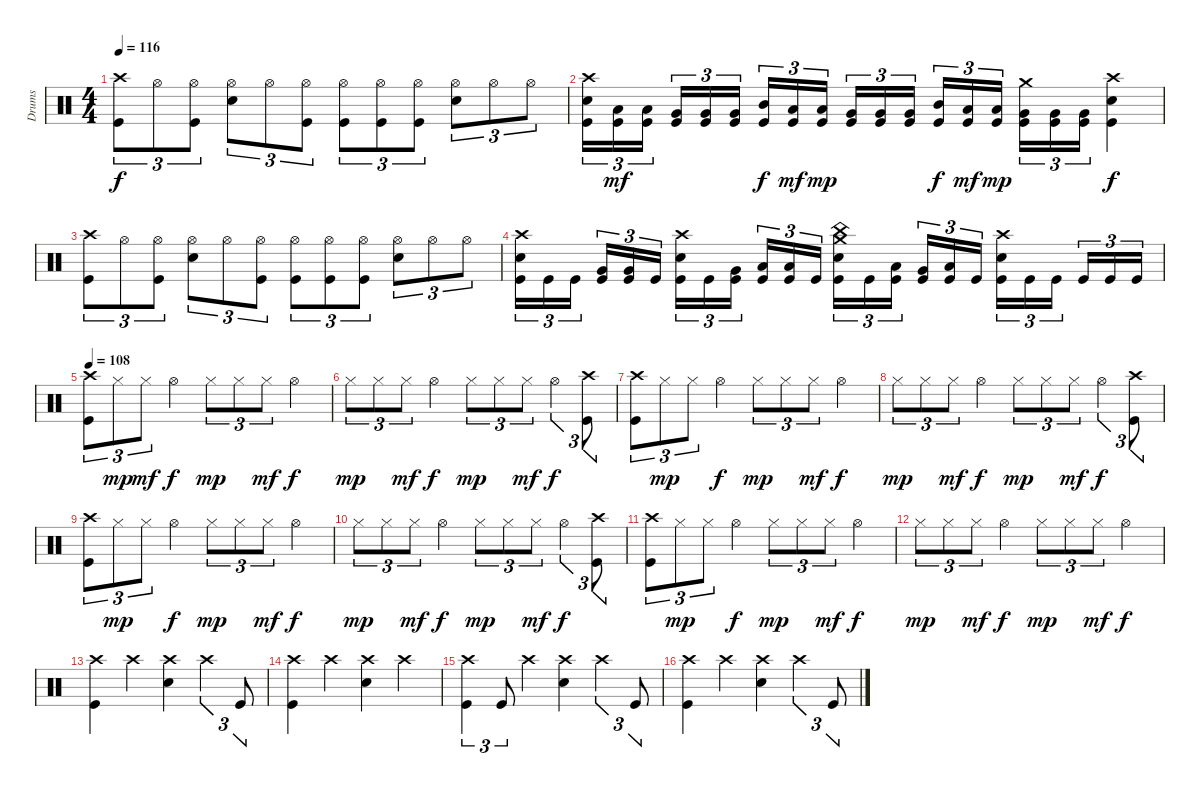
\track ("Drums" "Drums") {instrument percussion}
\staff {score}
\articulation defaults
\ts (4 4)
\tempo 116
\clef neutral
\ks c
("Crash high (hit)" "Kick (hit)").8{tu (3 2) dy f} "Hi-Hat (open)".8{tu (3 2)} ("Hi-Hat (open)" "Kick (hit)").8{tu (3 2)} ("Hi-Hat (open)" "Electric Snare (hit)").8{tu (3 2)} "Hi-Hat (open)".8{tu (3 2)} ("Hi-Hat (open)" "Kick (hit)").8{tu (3 2)} ("Hi-Hat (open)" "Kick (hit)").8{tu (3 2)} ("Hi-Hat (open)" "Kick (hit)").8{tu (3 2)} ("Hi-Hat (open)" "Kick (hit)").8{tu (3 2)} ("Hi-Hat (open)" "Electric Snare (hit)").8{tu (3 2)} "Hi-Hat (open)".8{tu (3 2)} "Hi-Hat (open)".8{tu (3 2)} |
("Crash high (hit)" "Electric Snare (hit)" "Kick (hit)").16{tu (3 2)} ("Low Tom (hit)" "Kick (hit)").16{tu (3 2) dy mf} ("Low Tom (hit)" "Kick (hit)").16{tu (3 2)} ("Very Low Tom (hit)" "Kick (hit)").16{tu (3 2)} ("Very Low Tom (hit)" "Kick (hit)").16{tu (3 2)} ("Very Low Tom (hit)" "Kick (hit)").16{tu (3 2)} ("Mid Tom (hit)" "Kick (hit)").16{tu (3 2) dy f} ("Low Tom (hit)" "Kick (hit)").16{tu (3 2) dy mf} ("Low Tom (hit)" "Kick (hit)").16{tu (3 2) dy mp} ("Very Low Tom (hit)" "Kick (hit)").16{tu (3 2)} ("Very Low Tom (hit)" "Kick (hit)").16{tu (3 2)} ("Very Low Tom (hit)" "Kick (hit)").16{tu (3 2)} ("Mid Tom (hit)" "Kick (hit)").16{tu (3 2) dy f} ("Low Tom (hit)" "Kick (hit)").16{tu (3 2) dy mf} ("Low Tom (hit)" "Kick (hit)").16{tu (3 2) dy mp} ("Crash medium (hit)" "Very Low Tom (hit)" "Kick (hit)").16{tu (3 2)} ("Very Low Tom (hit)" "Kick (hit)").16{tu (3 2)} ("Very Low Tom (hit)" "Kick (hit)").16{tu (3 2)} ("Crash high (hit)" "Electric Snare (hit)" "Kick (hit)").4{dy f} |
("Crash high (hit)" "Kick (hit)").8{tu (3 2)} "Hi-Hat (open)".8{tu (3 2)} ("Hi-Hat (open)" "Kick (hit)").8{tu (3 2)} ("Hi-Hat (open)" "Electric Snare (hit)").8{tu (3 2)} "Hi-Hat (open)".8{tu (3 2)} ("Hi-Hat (open)" "Kick (hit)").8{tu (3 2)} ("Hi-Hat (open)" "Kick (hit)").8{tu (3 2)} ("Hi-Hat (open)" "Kick (hit)").8{tu (3 2)} ("Hi-Hat (open)" "Kick (hit)").8{tu (3 2)} ("Hi-Hat (open)" "Electric Snare (hit)").8{tu (3 2)} "Hi-Hat (open)".8{tu (3 2)} "Hi-Hat (open)".8{tu (3 2)} |
("Crash high (hit)" "Electric Snare (hit)" "Kick (hit)").16{tu (3 2)} "Kick (hit)".16{tu (3 2)} "Kick (hit)".16{tu (3 2)} ("Very Low Tom (hit)" "Kick (hit)").16{tu (3 2)} ("Very Low Tom (hit)" "Kick (hit)").16{tu (3 2)} "Kick (hit)".16{tu (3 2)} ("Crash high (hit)" "Electric Snare (hit)" "Kick (hit)").16{tu (3 2)} "Kick (hit)".16{tu (3 2)} ("Very Low Tom (hit)" "Kick (hit)").16{tu (3 2)} ("Low Tom (hit)" "Kick (hit)").16{tu (3 2)} ("Low Tom (hit)" "Kick (hit)").16{tu (3 2)} "Kick (hit)".16{tu (3 2)} ("Crash medium (hit)" "China (hit)" "Electric Snare (hit)" "Kick (hit)").16{tu (3 2)} "Kick (hit)".16{tu (3 2)} ("Low Tom (hit)" "Kick (hit)").16{tu (3 2)} ("Very Low Tom (hit)" "Kick (hit)").16{tu (3 2)} ("Low Tom (hit)" "Kick (hit)").16{tu (3 2)} "Kick (hit)".16{tu (3 2)} ("Crash high (hit)" "Electric Snare (hit)" "Kick (hit)").16{tu (3 2)} "Kick (hit)".16{tu (3 2)} "Kick (hit)".16{tu (3 2)} "Kick (hit)".16{tu (3 2)} "Kick (hit)".16{tu (3 2)} "Kick (hit)".16{tu (3 2)} |
\tempo 108
("Crash high (hit)" "Kick (hit)").8{tu (3 2)} "Hi-Hat (closed)".8{tu (3 2) dy mp} "Hi-Hat (closed)".8{tu (3 2) dy mf} "Hi-Hat (open)".4{dy f} "Hi-Hat (closed)".8{tu (3 2) dy mp} "Hi-Hat (closed)".8{tu (3 2)} "Hi-Hat (closed)".8{tu (3 2) dy mf} "Hi-Hat (open)".4{dy f} |
"Hi-Hat (closed)".8{tu (3 2) dy mp} "Hi-Hat (closed)".8{tu (3 2)} "Hi-Hat (closed)".8{tu (3 2) dy mf} "Hi-Hat (open)".4{dy f} "Hi-Hat (closed)".8{tu (3 2) dy mp} "Hi-Hat (closed)".8{tu (3 2)} "Hi-Hat (closed)".8{tu (3 2) dy mf} "Hi-Hat (open)".4{tu (3 2) dy f} ("Crash high (hit)" "Kick (hit)").8{tu (3 2)} |
("Crash high (hit)" "Kick (hit)").8{tu (3 2)} "Hi-Hat (closed)".8{tu (3 2) dy mp} "Hi-Hat (closed)".8{tu (3 2)} "Hi-Hat (open)".4{dy f} "Hi-Hat (closed)".8{tu (3 2) dy mp} "Hi-Hat (closed)".8{tu (3 2)} "Hi-Hat (closed)".8{tu (3 2) dy mf} "Hi-Hat (open)".4{dy f} |
"Hi-Hat (closed)".8{tu (3 2) dy mp} "Hi-Hat (closed)".8{tu (3 2)} "Hi-Hat (closed)".8{tu (3 2) dy mf} "Hi-Hat (open)".4{dy f} "Hi-Hat (closed)".8{tu (3 2) dy mp} "Hi-Hat (closed)".8{tu (3 2)} "Hi-Hat (closed)".8{tu (3 2) dy mf} "Hi-Hat (open)".4{tu (3 2) dy f} ("Crash high (hit)" "Kick (hit)").8{tu (3 2)} |
("Crash high (hit)" "Kick (hit)").8{tu (3 2)} "Hi-Hat (closed)".8{tu (3 2) dy mp} "Hi-Hat (closed)".8{tu (3 2)} "Hi-Hat (open)".4{dy f} "Hi-Hat (closed)".8{tu (3 2) dy mp} "Hi-Hat (closed)".8{tu (3 2)} "Hi-Hat (closed)".8{tu (3 2) dy mf} "Hi-Hat (open)".4{dy f} |
"Hi-Hat (closed)".8{tu (3 2) dy mp} "Hi-Hat (closed)".8{tu (3 2)} "Hi-Hat (closed)".8{tu (3 2) dy mf} "Hi-Hat (open)".4{dy f} "Hi-Hat (closed)".8{tu (3 2) dy mp} "Hi-Hat (closed)".8{tu (3 2)} "Hi-Hat (closed)".8{tu (3 2) dy mf} "Hi-Hat (open)".4{tu (3 2) dy f} ("Crash high (hit)" "Kick (hit)").8{tu (3 2)} |
("Crash high (hit)" "Kick (hit)").8{tu (3 2)} "Hi-Hat (closed)".8{tu (3 2) dy mp} "Hi-Hat (closed)".8{tu (3 2)} "Hi-Hat (open)".4{dy f} "Hi-Hat (closed)".8{tu (3 2) dy mp} "Hi-Hat (closed)".8{tu (3 2)} "Hi-Hat (closed)".8{tu (3 2) dy mf} "Hi-Hat (open)".4{dy f} |
"Hi-Hat (closed)".8{tu (3 2) dy mp} "Hi-Hat (closed)".8{tu (3 2)} "Hi-Hat (closed)".8{tu (3 2) dy mf} "Hi-Hat (open)".4{dy f} "Hi-Hat (closed)".8{tu (3 2) dy mp} "Hi-Hat (closed)".8{tu (3 2)} "Hi-Hat (closed)".8{tu (3 2) dy mf} "Hi-Hat (open)".4{dy f} |
("Crash high (hit)" "Kick (hit)").4 "Crash high (hit)".4 ("Crash high (hit)" "Electric Snare (hit)").4 "Crash high (hit)".4{tu (3 2)} "Kick (hit)".8{tu (3 2)} |
("Crash high (hit)" "Kick (hit)").4 "Crash high (hit)".4 ("Crash high (hit)" "Electric Snare (hit)").4 "Crash high (hit)".4 |
("Crash high (hit)" "Kick (hit)").4{tu (3 2)} "Kick (hit)".8{tu (3 2)} "Crash high (hit)".4 ("Crash high (hit)" "Electric Snare (hit)").4 "Crash high (hit)".4{tu (3 2)} "Kick (hit)".8{tu (3 2)} |
("Crash high (hit)" "Kick (hit)").4 "Crash high (hit)".4 ("Crash high (hit)" "Electric Snare (hit)").4 "Crash high (hit)".4{tu (3 2)} "Kick (hit)".8{tu (3 2)}
